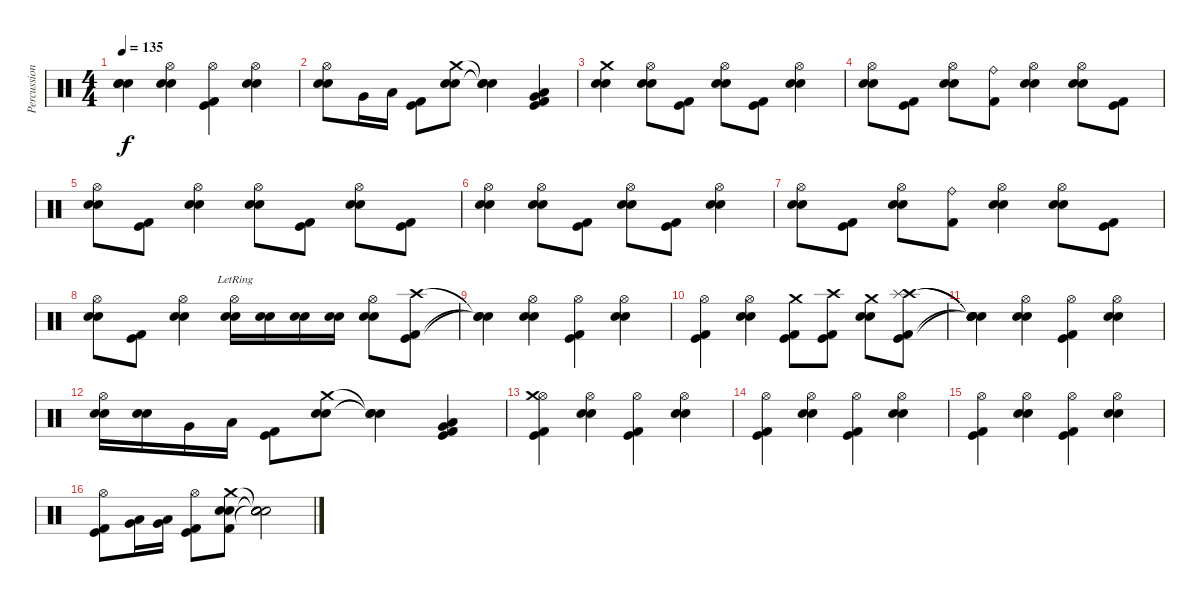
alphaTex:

\track ("Percussion" "Percussion") {instrument percussion}
\staff {score}
\articulation defaults
\ts (4 4)
\tempo 135
\clef neutral
\ks c
("Snare (hit)"{t} "Snare (hit)"{t} "Snare (hit)"{t}).4{dy f} ("Hi-Hat (open)" "Electric Snare (hit)" "Metronome (bell)").4 ("Hi-Hat (open)" "Kick (hit)" "Kick (hit) 2").4 ("Hi-Hat (open)" "Electric Snare (hit)" "Metronome (bell)").4 |
("Hi-Hat (open)" "Electric Snare (hit)" "Metronome (bell)").8 "Very Low Tom (hit)".16 "Low Floor Tom (hit)".16 ("Kick (hit)" "Kick (hit) 2").8 ("Crash medium (hit)" "Electric Snare (hit)" "Metronome (bell)").8 ("Snare (hit)"{t} "Snare (hit)"{t} "Snare (hit)"{t}).4 ("Very Low Tom (hit)" "Low Floor Tom (hit)" "Kick (hit)" "Kick (hit) 2").4 |
("Crash medium (hit)" "Electric Snare (hit)" "Metronome (bell)").4 ("Hi-Hat (open)" "Electric Snare (hit)" "Metronome (bell)").8 ("Kick (hit)" "Kick (hit) 2").8 ("Hi-Hat (open)" "Electric Snare (hit)" "Metronome (bell)").8 ("Kick (hit)" "Kick (hit) 2").8 ("Hi-Hat (open)" "Electric Snare (hit)" "Metronome (bell)").4 |
("Hi-Hat (open)" "Electric Snare (hit)" "Metronome (bell)").8 ("Kick (hit)" "Kick (hit) 2").8 ("Hi-Hat (open)" "Electric Snare (hit)" "Metronome (bell)").8 ("Ride (bell)" "Kick (hit) 2").8 ("Hi-Hat (open)" "Electric Snare (hit)" "Metronome (bell)").4 ("Hi-Hat (open)" "Electric Snare (hit)" "Metronome (bell)").8 ("Kick (hit)" "Kick (hit) 2").8 |
("Hi-Hat (open)" "Electric Snare (hit)" "Metronome (bell)").8 ("Kick (hit)" "Kick (hit) 2").8 ("Hi-Hat (open)" "Electric Snare (hit)" "Metronome (bell)").4 ("Hi-Hat (open)" "Electric Snare (hit)" "Metronome (bell)").8 ("Kick (hit)" "Kick (hit) 2").8 ("Hi-Hat (open)" "Electric Snare (hit)" "Metronome (bell)").8 ("Kick (hit)" "Kick (hit) 2").8 |
("Hi-Hat (open)" "Electric Snare (hit)" "Metronome (bell)").4 ("Hi-Hat (open)" "Electric Snare (hit)" "Metronome (bell)").8 ("Kick (hit)" "Kick (hit) 2").8 ("Hi-Hat (open)" "Electric Snare (hit)" "Metronome (bell)").8 ("Kick (hit)" "Kick (hit) 2").8 ("Hi-Hat (open)" "Electric Snare (hit)" "Metronome (bell)").4 |
("Hi-Hat (open)" "Electric Snare (hit)" "Metronome (bell)").8 ("Kick (hit)" "Kick (hit) 2").8 ("Hi-Hat (open)" "Electric Snare (hit)" "Metronome (bell)").8 ("Ride (bell)" "Kick (hit) 2").8 ("Hi-Hat (open)" "Electric Snare (hit)" "Metronome (bell)").4 ("Hi-Hat (open)" "Electric Snare (hit)" "Metronome (bell)").8 ("Kick (hit)" "Kick (hit) 2").8 |
("Hi-Hat (open)" "Electric Snare (hit)" "Metronome (bell)").8 ("Kick (hit)" "Kick (hit) 2").8 ("Hi-Hat (open)" "Electric Snare (hit)" "Metronome (bell)").4 ("Hi-Hat (open)"{lr} "Electric Snare (hit)" "Metronome (bell)").16 ("Electric Snare (hit)" "Metronome (bell)").16 ("Electric Snare (hit)" "Metronome (bell)").16 ("Electric Snare (hit)" "Metronome (bell)").16 ("Hi-Hat (open)" "Electric Snare (hit)" "Metronome (bell)").8 ("Crash high (hit)" "Kick (hit)" "Kick (hit) 2").8 |
("Snare (hit)"{t} "Snare (hit)"{t} "Snare (hit)"{t}).4 ("Hi-Hat (open)" "Electric Snare (hit)" "Metronome (bell)").4 ("Hi-Hat (open)" "Kick (hit)" "Kick (hit) 2").4 ("Hi-Hat (open)" "Electric Snare (hit)" "Metronome (bell)").4 |
("Hi-Hat (open)" "Kick (hit)" "Kick (hit) 2").4 ("Hi-Hat (open)" "Electric Snare (hit)" "Metronome (bell)").4 ("Crash medium (hit)" "Kick (hit)" "Kick (hit) 2").8 ("Crash high (hit)" "Kick (hit)" "Kick (hit) 2").8 ("Crash medium (hit)" "Electric Snare (hit)" "Metronome (bell)").8 ("Crash high (hit)" "Splash (hit)" "Kick (hit)" "Kick (hit) 2").8 |
("Snare (hit)"{t} "Snare (hit)"{t} "Snare (hit)"{t} "Snare (hit)"{t}).4 ("Hi-Hat (open)" "Electric Snare (hit)" "Metronome (bell)").4 ("Hi-Hat (open)" "Kick (hit)" "Kick (hit) 2").4 ("Hi-Hat (open)" "Electric Snare (hit)" "Metronome (bell)").4 |
("Hi-Hat (open)" "Electric Snare (hit)" "Metronome (bell)").16 ("Electric Snare (hit)" "Metronome (bell)").16 "Very Low Tom (hit)".16 "Low Floor Tom (hit)".16 ("Kick (hit)" "Kick (hit) 2").8 ("Crash medium (hit)" "Electric Snare (hit)" "Metronome (bell)").8 ("Snare (hit)"{t} "Snare (hit)"{t} "Snare (hit)"{t}).4 ("Very Low Tom (hit)" "Low Floor Tom (hit)" "Kick (hit)" "Kick (hit) 2").4 |
("Hi-Hat (open)" "Crash medium (hit)" "Kick (hit)" "Kick (hit) 2").4 ("Hi-Hat (open)" "Electric Snare (hit)" "Metronome (bell)").4 ("Hi-Hat (open)" "Kick (hit)" "Kick (hit) 2").4 ("Hi-Hat (open)" "Electric Snare (hit)" "Metronome (bell)").4 |
("Hi-Hat (open)" "Kick (hit)" "Kick (hit) 2").4 ("Hi-Hat (open)" "Electric Snare (hit)" "Metronome (bell)").4 ("Hi-Hat (open)" "Kick (hit)" "Kick (hit) 2").4 ("Hi-Hat (open)" "Electric Snare (hit)" "Metronome (bell)").4 |
("Hi-Hat (open)" "Kick (hit)" "Kick (hit) 2").4 ("Hi-Hat (open)" "Electric Snare (hit)" "Metronome (bell)").4 ("Hi-Hat (open)" "Kick (hit)" "Kick (hit) 2").4 ("Hi-Hat (open)" "Electric Snare (hit)" "Metronome (bell)").4 |
("Hi-Hat (open)" "Kick (hit)" "Kick (hit) 2").8 ("Low Tom (hit)" "Very Low Tom (hit)").16 ("Very Low Tom (hit)" "Low Floor Tom (hit)").16 ("Hi-Hat (open)" "Kick (hit)" "Kick (hit) 2").8 ("Crash medium (hit)" "Electric Snare (hit)" "Metronome (bell)" "Kick (hit) 2").8 ("Snare (hit)"{t} "Snare (hit)"{t} "Snare (hit)"{t} "Snare (hit)"{t}).2
